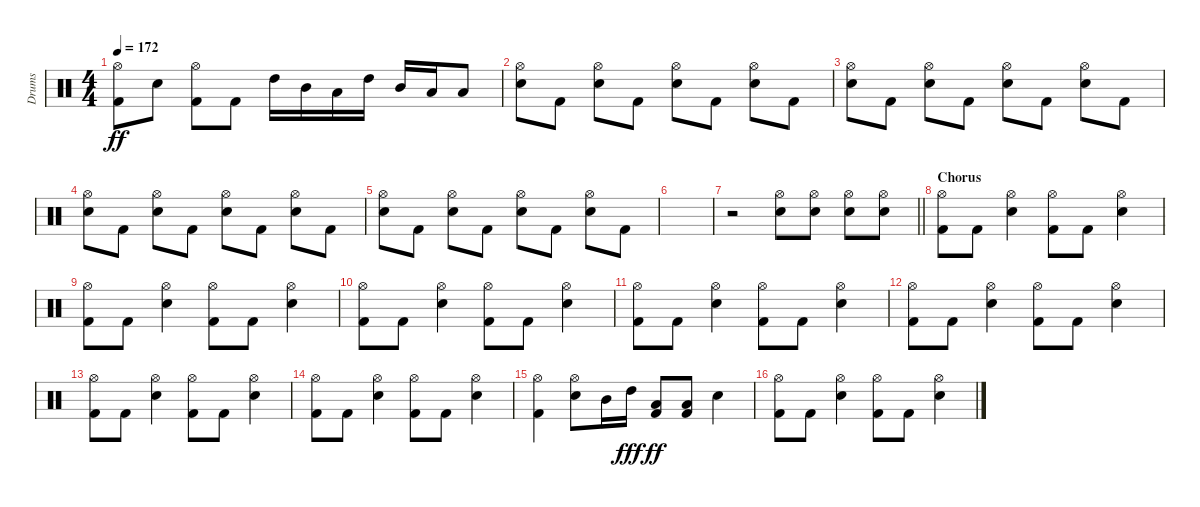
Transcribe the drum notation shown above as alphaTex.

\track ("Drums" "Drums") {instrument percussion}
\staff {score}
\articulation defaults
\ts (4 4)
\tempo 172
\clef neutral
\ks c
("Hi-Hat (open)" "Kick (hit) 2").8{dy ff} "Snare (hit) 2".8 ("Hi-Hat (open)" "Kick (hit) 2").8 "Kick (hit) 2".8 "High Tom (hit)".16 "Mid Tom (hit)".16 "Low Tom (hit)".16 "High Tom (hit)".16 "Mid Tom (hit)".16 "Low Tom (hit)".16 "Low Floor Tom (hit)".8 |
("Hi-Hat (open)" "Snare (hit) 2").8 "Kick (hit) 2".8 ("Hi-Hat (open)" "Snare (hit) 2").8 "Kick (hit) 2".8 ("Hi-Hat (open)" "Snare (hit) 2").8 "Kick (hit) 2".8 ("Hi-Hat (open)" "Snare (hit) 2").8 "Kick (hit) 2".8 |
("Hi-Hat (open)" "Snare (hit) 2").8 "Kick (hit) 2".8 ("Hi-Hat (open)" "Snare (hit) 2").8 "Kick (hit) 2".8 ("Hi-Hat (open)" "Snare (hit) 2").8 "Kick (hit) 2".8 ("Hi-Hat (open)" "Snare (hit) 2").8 "Kick (hit) 2".8 |
("Hi-Hat (open)" "Snare (hit) 2").8 "Kick (hit) 2".8 ("Hi-Hat (open)" "Snare (hit) 2").8 "Kick (hit) 2".8 ("Hi-Hat (open)" "Snare (hit) 2").8 "Kick (hit) 2".8 ("Hi-Hat (open)" "Snare (hit) 2").8 "Kick (hit) 2".8 |
("Hi-Hat (open)" "Snare (hit) 2").8 "Kick (hit) 2".8 ("Hi-Hat (open)" "Snare (hit) 2").8 "Kick (hit) 2".8 ("Hi-Hat (open)" "Snare (hit) 2").8 "Kick (hit) 2".8 ("Hi-Hat (open)" "Snare (hit) 2").8 "Kick (hit) 2".8 |
|
\barLineRight lightlight
r.2 ("Hi-Hat (open)" "Snare (hit) 2").8 ("Hi-Hat (open)" "Snare (hit) 2").8 ("Hi-Hat (open)" "Snare (hit) 2").8 ("Hi-Hat (open)" "Snare (hit) 2").8 |
\section ("" "Chorus")
("Hi-Hat (open)" "Kick (hit) 2").8 "Kick (hit) 2".8 ("Hi-Hat (open)" "Snare (hit) 2").4 ("Hi-Hat (open)" "Kick (hit) 2").8 "Kick (hit) 2".8 ("Hi-Hat (open)" "Snare (hit) 2").4 |
("Hi-Hat (open)" "Kick (hit) 2").8 "Kick (hit) 2".8 ("Hi-Hat (open)" "Snare (hit) 2").4 ("Hi-Hat (open)" "Kick (hit) 2").8 "Kick (hit) 2".8 ("Hi-Hat (open)" "Snare (hit) 2").4 |
("Hi-Hat (open)" "Kick (hit) 2").8 "Kick (hit) 2".8 ("Hi-Hat (open)" "Snare (hit) 2").4 ("Hi-Hat (open)" "Kick (hit) 2").8 "Kick (hit) 2".8 ("Hi-Hat (open)" "Snare (hit) 2").4 |
("Hi-Hat (open)" "Kick (hit) 2").8 "Kick (hit) 2".8 ("Hi-Hat (open)" "Snare (hit) 2").4 ("Hi-Hat (open)" "Kick (hit) 2").8 "Kick (hit) 2".8 ("Hi-Hat (open)" "Snare (hit) 2").4 |
("Hi-Hat (open)" "Kick (hit) 2").8 "Kick (hit) 2".8 ("Hi-Hat (open)" "Snare (hit) 2").4 ("Hi-Hat (open)" "Kick (hit) 2").8 "Kick (hit) 2".8 ("Hi-Hat (open)" "Snare (hit) 2").4 |
("Hi-Hat (open)" "Kick (hit) 2").8 "Kick (hit) 2".8 ("Hi-Hat (open)" "Snare (hit) 2").4 ("Hi-Hat (open)" "Kick (hit) 2").8 "Kick (hit) 2".8 ("Hi-Hat (open)" "Snare (hit) 2").4 |
("Hi-Hat (open)" "Kick (hit) 2").8 "Kick (hit) 2".8 ("Hi-Hat (open)" "Snare (hit) 2").4 ("Hi-Hat (open)" "Kick (hit) 2").8 "Kick (hit) 2".8 ("Hi-Hat (open)" "Snare (hit) 2").4 |
("Hi-Hat (open)" "Kick (hit) 2").4 ("Hi-Hat (open)" "Snare (hit) 2").8 "Mid Tom (hit)".16 "High Tom (hit)".16{dy fff} ("Low Floor Tom (hit)" "Kick (hit) 2").8{dy ff} ("Low Floor Tom (hit)" "Kick (hit) 2").8 "Snare (hit) 2".4 |
("Hi-Hat (open)" "Kick (hit) 2").8 "Kick (hit) 2".8 ("Hi-Hat (open)" "Snare (hit) 2").4 ("Hi-Hat (open)" "Kick (hit) 2").8 "Kick (hit) 2".8 ("Hi-Hat (open)" "Snare (hit) 2").4
